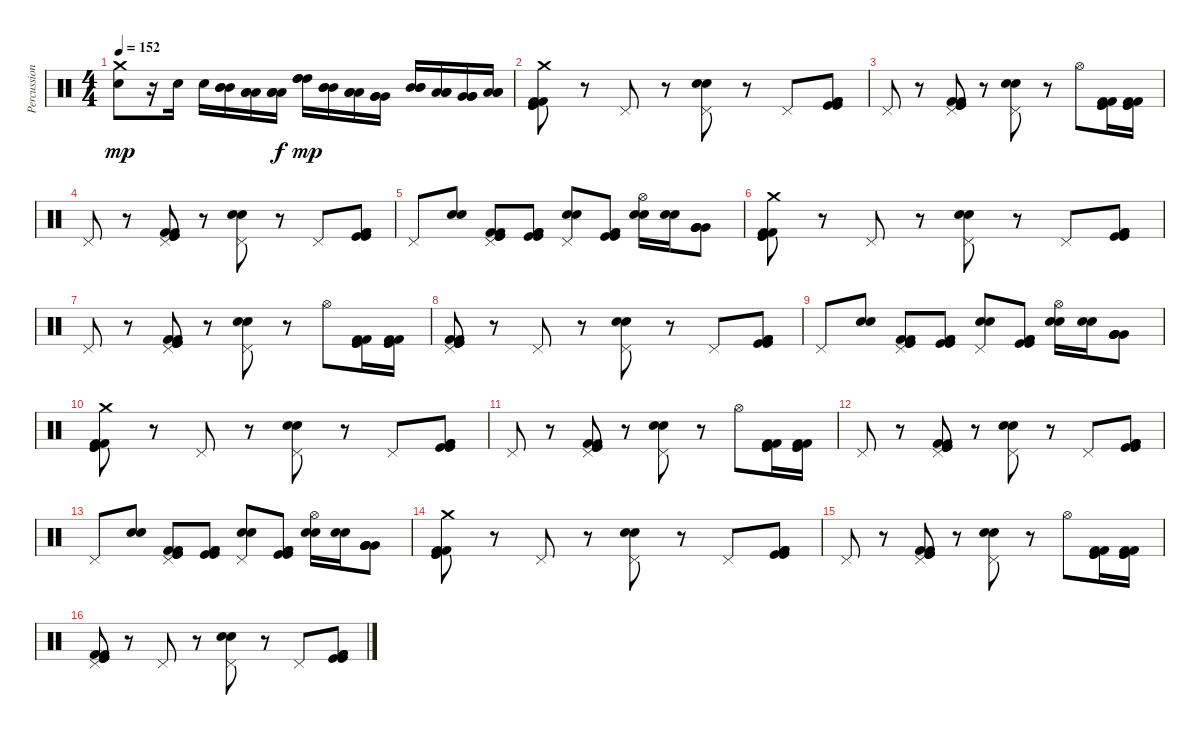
\track ("Percussion" "Percussion") {instrument percussion}
\staff {score}
\articulation defaults
\ts (4 4)
\tempo 152
\clef neutral
\ks c
("Crash medium (hit)" "Snare (hit) 2").8{dy mp} r.16 "Snare (hit) 2".16 "Snare (hit) 2".16 ("Mid Tom (hit)" "Mid Tom (hit)" "Mid Tom (hit)").16 ("Low Tom (hit)" "Low Tom (hit)" "Low Tom (hit)").16 ("Low Tom (hit)" "Low Tom (hit)" "Low Tom (hit)").16{dy f} ("High Tom (hit)" "High Tom (hit)" "High Tom (hit)").16{dy mp} ("Mid Tom (hit)" "Mid Tom (hit)" "Mid Tom (hit)").16 ("Low Tom (hit)" "Low Tom (hit)" "Low Tom (hit)").16 ("Very Low Tom (hit)" "Very Low Tom (hit)" "Very Low Tom (hit)").16 ("Mid Tom (hit)" "Mid Tom (hit)" "Mid Tom (hit)").16 ("Low Tom (hit)" "Low Tom (hit)" "Low Tom (hit)").16 ("Very Low Tom (hit)" "Very Low Tom (hit)" "Very Low Tom (hit)").16 ("Low Floor Tom (hit)" "Low Floor Tom (hit)" "Low Floor Tom (hit)").16 |
("Crash medium (hit)" "Kick (hit) 2" "Kick (hit)" "Kick (hit) 2" "Kick (hit)").8 r.8 "Pedal Hi-Hat (hit)".8 r.8 ("Pedal Hi-Hat (hit)" "Electric Snare (hit)" "Snare (hit) 2").8 r.8 "Pedal Hi-Hat (hit)".8 ("Kick (hit) 2" "Kick (hit)" "Kick (hit) 2" "Kick (hit)").8 |
"Pedal Hi-Hat (hit)".8 r.8 ("Pedal Hi-Hat (hit)" "Kick (hit) 2" "Kick (hit)" "Kick (hit) 2" "Kick (hit)").8 r.8 ("Pedal Hi-Hat (hit)" "Electric Snare (hit)" "Snare (hit) 2").8 r.8 "Hi-Hat (open)".8 ("Kick (hit) 2" "Kick (hit)" "Kick (hit) 2" "Kick (hit)").16 ("Kick (hit) 2" "Kick (hit)" "Kick (hit) 2" "Kick (hit)").16 |
"Pedal Hi-Hat (hit)".8 r.8 ("Pedal Hi-Hat (hit)" "Kick (hit) 2" "Kick (hit)" "Kick (hit) 2" "Kick (hit)").8 r.8 ("Pedal Hi-Hat (hit)" "Electric Snare (hit)" "Snare (hit) 2").8 r.8 "Pedal Hi-Hat (hit)".8 ("Kick (hit) 2" "Kick (hit)" "Kick (hit) 2" "Kick (hit)").8 |
"Pedal Hi-Hat (hit)".8 ("Electric Snare (hit)" "Snare (hit) 2").8 ("Pedal Hi-Hat (hit)" "Kick (hit) 2" "Kick (hit)" "Kick (hit) 2" "Kick (hit)").8 ("Kick (hit) 2" "Kick (hit)" "Kick (hit) 2" "Kick (hit)").8 ("Pedal Hi-Hat (hit)" "Electric Snare (hit)" "Snare (hit) 2").8 ("Kick (hit) 2" "Kick (hit)" "Kick (hit) 2" "Kick (hit)").8 ("Hi-Hat (open)" "Electric Snare (hit)" "Snare (hit) 2").16 ("Electric Snare (hit)" "Snare (hit) 2").16 ("Very Low Tom (hit)" "Very Low Tom (hit)" "Very Low Tom (hit)" "Very Low Tom (hit)").8 |
("Crash medium (hit)" "Kick (hit) 2" "Kick (hit)" "Kick (hit) 2" "Kick (hit)").8 r.8 "Pedal Hi-Hat (hit)".8 r.8 ("Pedal Hi-Hat (hit)" "Electric Snare (hit)" "Snare (hit) 2").8 r.8 "Pedal Hi-Hat (hit)".8 ("Kick (hit) 2" "Kick (hit)" "Kick (hit) 2" "Kick (hit)").8 |
"Pedal Hi-Hat (hit)".8 r.8 ("Pedal Hi-Hat (hit)" "Kick (hit) 2" "Kick (hit)" "Kick (hit) 2" "Kick (hit)").8 r.8 ("Pedal Hi-Hat (hit)" "Electric Snare (hit)" "Snare (hit) 2").8 r.8 "Hi-Hat (open)".8 ("Kick (hit) 2" "Kick (hit)" "Kick (hit) 2" "Kick (hit)").16 ("Kick (hit) 2" "Kick (hit)" "Kick (hit) 2" "Kick (hit)").16 |
("Pedal Hi-Hat (hit)" "Kick (hit) 2" "Kick (hit)" "Kick (hit) 2" "Kick (hit)").8 r.8 "Pedal Hi-Hat (hit)".8 r.8 ("Pedal Hi-Hat (hit)" "Electric Snare (hit)" "Snare (hit) 2").8 r.8 "Pedal Hi-Hat (hit)".8 ("Kick (hit) 2" "Kick (hit)" "Kick (hit) 2" "Kick (hit)").8 |
"Pedal Hi-Hat (hit)".8 ("Electric Snare (hit)" "Snare (hit) 2").8 ("Pedal Hi-Hat (hit)" "Kick (hit) 2" "Kick (hit)" "Kick (hit) 2" "Kick (hit)").8 ("Kick (hit) 2" "Kick (hit)" "Kick (hit) 2" "Kick (hit)").8 ("Pedal Hi-Hat (hit)" "Electric Snare (hit)" "Snare (hit) 2").8 ("Kick (hit) 2" "Kick (hit)" "Kick (hit) 2" "Kick (hit)").8 ("Hi-Hat (open)" "Electric Snare (hit)" "Snare (hit) 2").16 ("Electric Snare (hit)" "Snare (hit) 2").16 ("Very Low Tom (hit)" "Very Low Tom (hit)" "Very Low Tom (hit)" "Very Low Tom (hit)").8 |
("Crash medium (hit)" "Kick (hit) 2" "Kick (hit)" "Kick (hit) 2" "Kick (hit)").8 r.8 "Pedal Hi-Hat (hit)".8 r.8 ("Pedal Hi-Hat (hit)" "Electric Snare (hit)" "Snare (hit) 2").8 r.8 "Pedal Hi-Hat (hit)".8 ("Kick (hit) 2" "Kick (hit)" "Kick (hit) 2" "Kick (hit)").8 |
"Pedal Hi-Hat (hit)".8 r.8 ("Pedal Hi-Hat (hit)" "Kick (hit) 2" "Kick (hit)" "Kick (hit) 2" "Kick (hit)").8 r.8 ("Pedal Hi-Hat (hit)" "Electric Snare (hit)" "Snare (hit) 2").8 r.8 "Hi-Hat (open)".8 ("Kick (hit) 2" "Kick (hit)" "Kick (hit) 2" "Kick (hit)").16 ("Kick (hit) 2" "Kick (hit)" "Kick (hit) 2" "Kick (hit)").16 |
"Pedal Hi-Hat (hit)".8 r.8 ("Pedal Hi-Hat (hit)" "Kick (hit) 2" "Kick (hit)" "Kick (hit) 2" "Kick (hit)").8 r.8 ("Pedal Hi-Hat (hit)" "Electric Snare (hit)" "Snare (hit) 2").8 r.8 "Pedal Hi-Hat (hit)".8 ("Kick (hit) 2" "Kick (hit)" "Kick (hit) 2" "Kick (hit)").8 |
"Pedal Hi-Hat (hit)".8 ("Electric Snare (hit)" "Snare (hit) 2").8 ("Pedal Hi-Hat (hit)" "Kick (hit) 2" "Kick (hit)" "Kick (hit) 2" "Kick (hit)").8 ("Kick (hit) 2" "Kick (hit)" "Kick (hit) 2" "Kick (hit)").8 ("Pedal Hi-Hat (hit)" "Electric Snare (hit)" "Snare (hit) 2").8 ("Kick (hit) 2" "Kick (hit)" "Kick (hit) 2" "Kick (hit)").8 ("Hi-Hat (open)" "Electric Snare (hit)" "Snare (hit) 2").16 ("Electric Snare (hit)" "Snare (hit) 2").16 ("Very Low Tom (hit)" "Very Low Tom (hit)" "Very Low Tom (hit)" "Very Low Tom (hit)").8 |
("Crash medium (hit)" "Kick (hit) 2" "Kick (hit)" "Kick (hit) 2" "Kick (hit)").8 r.8 "Pedal Hi-Hat (hit)".8 r.8 ("Pedal Hi-Hat (hit)" "Electric Snare (hit)" "Snare (hit) 2").8 r.8 "Pedal Hi-Hat (hit)".8 ("Kick (hit) 2" "Kick (hit)" "Kick (hit) 2" "Kick (hit)").8 |
"Pedal Hi-Hat (hit)".8 r.8 ("Pedal Hi-Hat (hit)" "Kick (hit) 2" "Kick (hit)" "Kick (hit) 2" "Kick (hit)").8 r.8 ("Pedal Hi-Hat (hit)" "Electric Snare (hit)" "Snare (hit) 2").8 r.8 "Hi-Hat (open)".8 ("Kick (hit) 2" "Kick (hit)" "Kick (hit) 2" "Kick (hit)").16 ("Kick (hit) 2" "Kick (hit)" "Kick (hit) 2" "Kick (hit)").16 |
("Pedal Hi-Hat (hit)" "Kick (hit) 2" "Kick (hit)" "Kick (hit) 2" "Kick (hit)").8 r.8 "Pedal Hi-Hat (hit)".8 r.8 ("Pedal Hi-Hat (hit)" "Electric Snare (hit)" "Snare (hit) 2").8 r.8 "Pedal Hi-Hat (hit)".8 ("Kick (hit) 2" "Kick (hit)" "Kick (hit) 2" "Kick (hit)").8
